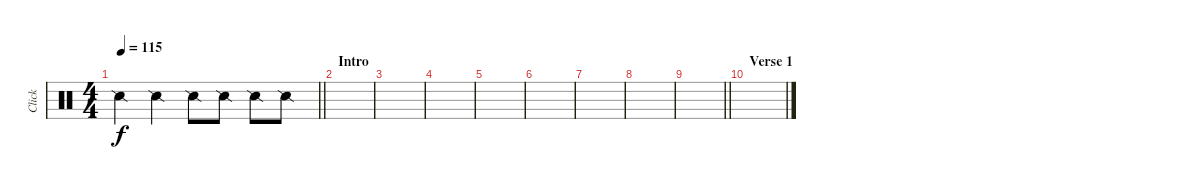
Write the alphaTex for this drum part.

\track ("Click" "Click") {instrument percussion}
\staff {score}
\articulation defaults
\ts (4 4)
\tempo 115
\clef neutral
\barLineRight lightlight
\ks c "Snare (side stick) 2".4{dy f} "Snare (side stick) 2".4 "Snare (side stick) 2".8 "Snare (side stick) 2".8 "Snare (side stick) 2".8 "Snare (side stick) 2".8
|
\section ("" "Intro")
|
|
|
|
|
|
|
\barLineRight lightlight
|
\section ("" "Verse 1")
